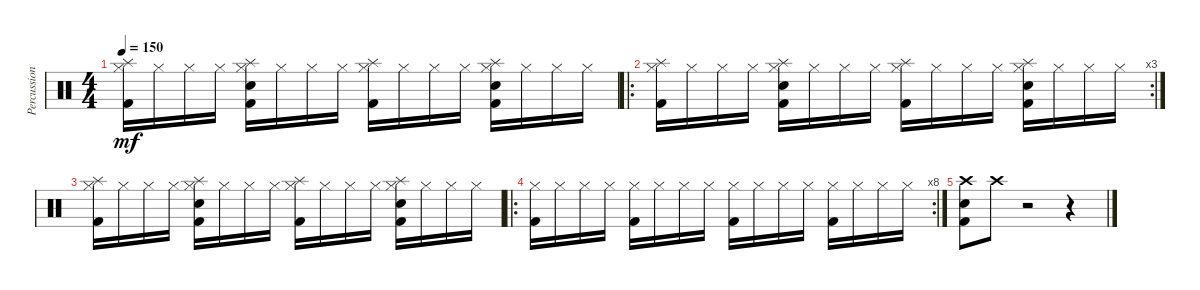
\track ("Percussion" "Percussion") {instrument percussion}
\staff {score}
\articulation defaults
\ts (4 4)
\tempo 150
\clef neutral
\ks c
("Hi-Hat (closed)" "Splash (hit)" "Kick (hit) 2").16{dy mf} "Hi-Hat (closed)".16 "Hi-Hat (closed)".16 "Hi-Hat (closed)".16 ("Hi-Hat (closed)" "Splash (hit)" "Electric Snare (hit)" "Kick (hit) 2").16 "Hi-Hat (closed)".16 "Hi-Hat (closed)".16 "Hi-Hat (closed)".16 ("Hi-Hat (closed)" "Splash (hit)" "Kick (hit) 2").16 "Hi-Hat (closed)".16 "Hi-Hat (closed)".16 "Hi-Hat (closed)".16 ("Hi-Hat (closed)" "Splash (hit)" "Electric Snare (hit)" "Kick (hit) 2").16 "Hi-Hat (closed)".16 "Hi-Hat (closed)".16 "Hi-Hat (closed)".16 |
\ro
\rc 3
("Hi-Hat (closed)" "Splash (hit)" "Kick (hit) 2").16 "Hi-Hat (closed)".16 "Hi-Hat (closed)".16 "Hi-Hat (closed)".16 ("Hi-Hat (closed)" "Splash (hit)" "Electric Snare (hit)" "Kick (hit) 2").16 "Hi-Hat (closed)".16 "Hi-Hat (closed)".16 "Hi-Hat (closed)".16 ("Hi-Hat (closed)" "Splash (hit)" "Kick (hit) 2").16 "Hi-Hat (closed)".16 "Hi-Hat (closed)".16 "Hi-Hat (closed)".16 ("Hi-Hat (closed)" "Splash (hit)" "Electric Snare (hit)" "Kick (hit) 2").16 "Hi-Hat (closed)".16 "Hi-Hat (closed)".16 "Hi-Hat (closed)".16 |
("Hi-Hat (closed)" "Splash (hit)" "Kick (hit) 2").16 "Hi-Hat (closed)".16 "Hi-Hat (closed)".16 "Hi-Hat (closed)".16 ("Hi-Hat (closed)" "Splash (hit)" "Electric Snare (hit)" "Kick (hit) 2").16 "Hi-Hat (closed)".16 "Hi-Hat (closed)".16 "Hi-Hat (closed)".16 ("Hi-Hat (closed)" "Splash (hit)" "Kick (hit) 2").16 "Hi-Hat (closed)".16 "Hi-Hat (closed)".16 "Hi-Hat (closed)".16 ("Hi-Hat (closed)" "Splash (hit)" "Electric Snare (hit)" "Kick (hit) 2").16 "Hi-Hat (closed)".16 "Hi-Hat (closed)".16 "Hi-Hat (closed)".16 |
\ro
\rc 8
("Hi-Hat (closed)" "Kick (hit) 2").16 "Hi-Hat (closed)".16 "Hi-Hat (closed)".16 "Hi-Hat (closed)".16 ("Hi-Hat (closed)" "Kick (hit) 2").16 "Hi-Hat (closed)".16 "Hi-Hat (closed)".16 "Hi-Hat (closed)".16 ("Hi-Hat (closed)" "Kick (hit) 2").16 "Hi-Hat (closed)".16 "Hi-Hat (closed)".16 "Hi-Hat (closed)".16 ("Hi-Hat (closed)" "Kick (hit) 2").16 "Hi-Hat (closed)".16 "Hi-Hat (closed)".16 "Hi-Hat (closed)".16 |
("Crash high (hit)" "Electric Snare (hit)" "Kick (hit) 2").8 "Crash high (hit)".8 r.2 r.4
